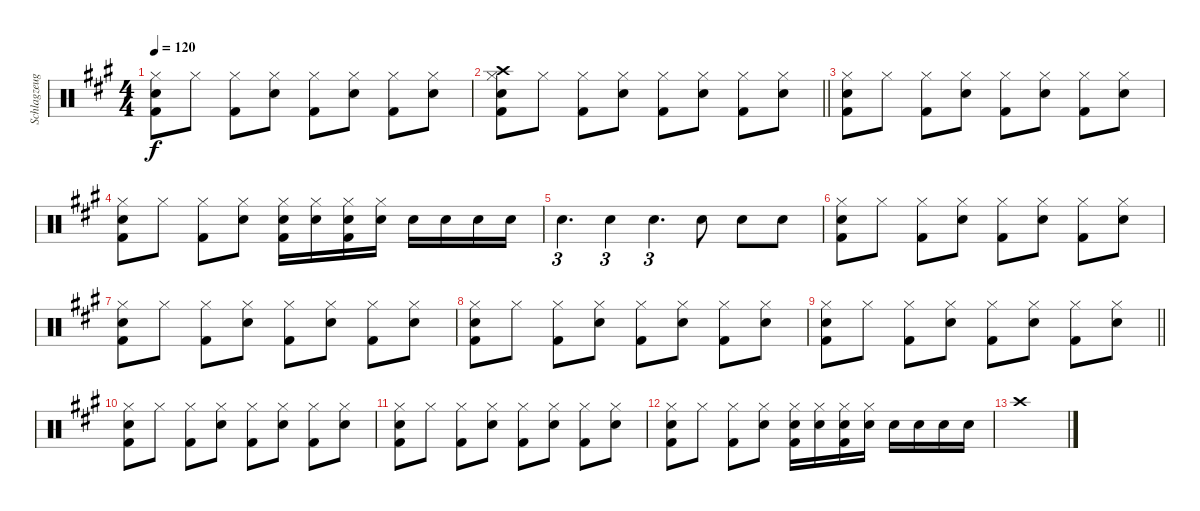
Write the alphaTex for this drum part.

\track ("Schlagzeug" "Schlagzeug") {instrument percussion}
\staff {score}
\articulation defaults
\ts (4 4)
\tempo 120
\clef neutral
\ks a
("Hi-Hat (closed)" "Snare (hit) 2" "Kick (hit) 2").8{dy f} "Hi-Hat (closed)".8 ("Hi-Hat (closed)" "Kick (hit) 2").8 ("Hi-Hat (closed)" "Snare (hit) 2").8 ("Hi-Hat (closed)" "Kick (hit) 2").8 ("Hi-Hat (closed)" "Snare (hit) 2").8 ("Hi-Hat (closed)" "Kick (hit) 2").8 ("Hi-Hat (closed)" "Snare (hit) 2").8 |
\barLineRight lightlight
("Hi-Hat (closed)" "Crash high (hit)" "Snare (hit) 2" "Kick (hit) 2").8 "Hi-Hat (closed)".8 ("Hi-Hat (closed)" "Kick (hit) 2").8 ("Hi-Hat (closed)" "Snare (hit) 2").8 ("Hi-Hat (closed)" "Kick (hit) 2").8 ("Hi-Hat (closed)" "Snare (hit) 2").8 ("Hi-Hat (closed)" "Kick (hit) 2").8 ("Hi-Hat (closed)" "Snare (hit) 2").8 |
("Hi-Hat (closed)" "Snare (hit) 2" "Kick (hit) 2").8 "Hi-Hat (closed)".8 ("Hi-Hat (closed)" "Kick (hit) 2").8 ("Hi-Hat (closed)" "Snare (hit) 2").8 ("Hi-Hat (closed)" "Kick (hit) 2").8 ("Hi-Hat (closed)" "Snare (hit) 2").8 ("Hi-Hat (closed)" "Kick (hit) 2").8 ("Hi-Hat (closed)" "Snare (hit) 2").8 |
("Hi-Hat (closed)" "Snare (hit) 2" "Kick (hit) 2").8 "Hi-Hat (closed)".8 ("Hi-Hat (closed)" "Kick (hit) 2").8 ("Hi-Hat (closed)" "Snare (hit) 2").8 ("Hi-Hat (closed)" "Snare (hit) 2" "Kick (hit) 2").16 ("Hi-Hat (closed)" "Snare (hit) 2").16 ("Hi-Hat (closed)" "Snare (hit) 2" "Kick (hit) 2").16 ("Hi-Hat (closed)" "Snare (hit) 2").16 "Snare (hit) 2".16 "Snare (hit) 2".16 "Snare (hit) 2".16 "Snare (hit) 2".16 |
"Hand Clap (hit)".4{d tu (3 2) volume 16} "Hand Clap (hit)".4{tu (3 2)} "Hand Clap (hit)".4{d tu (3 2)} "Hand Clap (hit)".8 "Hand Clap (hit)".8 "Hand Clap (hit)".8 |
("Hi-Hat (closed)" "Snare (hit) 2" "Kick (hit) 2").8{volume 13} "Hi-Hat (closed)".8 ("Hi-Hat (closed)" "Kick (hit) 2").8 ("Hi-Hat (closed)" "Snare (hit) 2").8 ("Hi-Hat (closed)" "Kick (hit) 2").8 ("Hi-Hat (closed)" "Snare (hit) 2").8 ("Hi-Hat (closed)" "Kick (hit) 2").8 ("Hi-Hat (closed)" "Snare (hit) 2").8 |
("Hi-Hat (closed)" "Snare (hit) 2" "Kick (hit) 2").8 "Hi-Hat (closed)".8 ("Hi-Hat (closed)" "Kick (hit) 2").8 ("Hi-Hat (closed)" "Snare (hit) 2").8 ("Hi-Hat (closed)" "Kick (hit) 2").8 ("Hi-Hat (closed)" "Snare (hit) 2").8 ("Hi-Hat (closed)" "Kick (hit) 2").8 ("Hi-Hat (closed)" "Snare (hit) 2").8 |
("Hi-Hat (closed)" "Snare (hit) 2" "Kick (hit) 2").8 "Hi-Hat (closed)".8 ("Hi-Hat (closed)" "Kick (hit) 2").8 ("Hi-Hat (closed)" "Snare (hit) 2").8 ("Hi-Hat (closed)" "Kick (hit) 2").8 ("Hi-Hat (closed)" "Snare (hit) 2").8 ("Hi-Hat (closed)" "Kick (hit) 2").8 ("Hi-Hat (closed)" "Snare (hit) 2").8 |
\barLineRight lightlight
("Hi-Hat (closed)" "Snare (hit) 2" "Kick (hit) 2").8 "Hi-Hat (closed)".8 ("Hi-Hat (closed)" "Kick (hit) 2").8 ("Hi-Hat (closed)" "Snare (hit) 2").8 ("Hi-Hat (closed)" "Kick (hit) 2").8 ("Hi-Hat (closed)" "Snare (hit) 2").8 ("Hi-Hat (closed)" "Kick (hit) 2").8 ("Hi-Hat (closed)" "Snare (hit) 2").8 |
("Hi-Hat (closed)" "Snare (hit) 2" "Kick (hit) 2").8 "Hi-Hat (closed)".8 ("Hi-Hat (closed)" "Kick (hit) 2").8 ("Hi-Hat (closed)" "Snare (hit) 2").8 ("Hi-Hat (closed)" "Kick (hit) 2").8 ("Hi-Hat (closed)" "Snare (hit) 2").8 ("Hi-Hat (closed)" "Kick (hit) 2").8 ("Hi-Hat (closed)" "Snare (hit) 2").8 |
("Hi-Hat (closed)" "Snare (hit) 2" "Kick (hit) 2").8 "Hi-Hat (closed)".8 ("Hi-Hat (closed)" "Kick (hit) 2").8 ("Hi-Hat (closed)" "Snare (hit) 2").8 ("Hi-Hat (closed)" "Kick (hit) 2").8 ("Hi-Hat (closed)" "Snare (hit) 2").8 ("Hi-Hat (closed)" "Kick (hit) 2").8 ("Hi-Hat (closed)" "Snare (hit) 2").8 |
("Hi-Hat (closed)" "Snare (hit) 2" "Kick (hit) 2").8 "Hi-Hat (closed)".8 ("Hi-Hat (closed)" "Kick (hit) 2").8 ("Hi-Hat (closed)" "Snare (hit) 2").8 ("Hi-Hat (closed)" "Snare (hit) 2" "Kick (hit) 2").16 ("Hi-Hat (closed)" "Snare (hit) 2").16 ("Hi-Hat (closed)" "Snare (hit) 2" "Kick (hit) 2").16 ("Hi-Hat (closed)" "Snare (hit) 2").16 "Snare (hit) 2".16 "Snare (hit) 2".16 "Snare (hit) 2".16 "Snare (hit) 2".16 |
"Crash high (hit)".1
